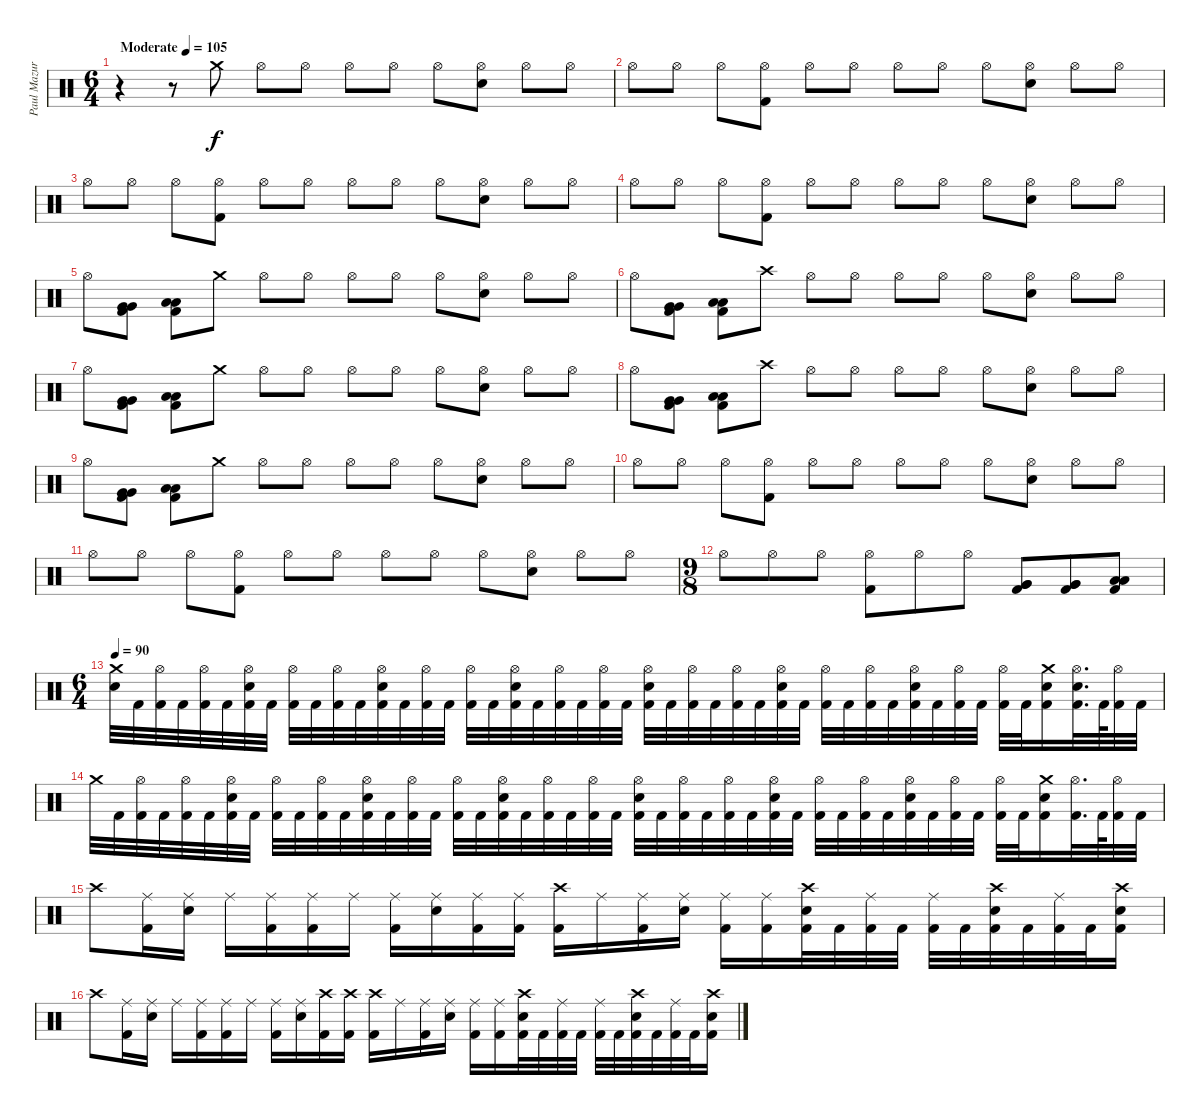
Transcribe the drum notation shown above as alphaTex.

\track ("Paul Mazurkiewicz" "Paul Mazur") {instrument percussion}
\staff {score}
\articulation defaults
\ts (6 4)
\tempo (105 "Moderate")
\clef neutral
\ks c
r.4{dy f} r.8 "Crash medium (hit)".8 "Hi-Hat (open)".8 "Hi-Hat (open)".8 "Hi-Hat (open)".8 "Hi-Hat (open)".8 "Hi-Hat (open)".8 ("Hi-Hat (open)" "Electric Snare (hit)").8 "Hi-Hat (open)".8 "Hi-Hat (open)".8 |
"Hi-Hat (open)".8 "Hi-Hat (open)".8 "Hi-Hat (open)".8 ("Hi-Hat (open)" "Kick (hit) 2").8 "Hi-Hat (open)".8 "Hi-Hat (open)".8 "Hi-Hat (open)".8 "Hi-Hat (open)".8 "Hi-Hat (open)".8 ("Hi-Hat (open)" "Electric Snare (hit)").8 "Hi-Hat (open)".8 "Hi-Hat (open)".8 |
"Hi-Hat (open)".8 "Hi-Hat (open)".8 "Hi-Hat (open)".8 ("Hi-Hat (open)" "Kick (hit) 2").8 "Hi-Hat (open)".8 "Hi-Hat (open)".8 "Hi-Hat (open)".8 "Hi-Hat (open)".8 "Hi-Hat (open)".8 ("Hi-Hat (open)" "Electric Snare (hit)").8 "Hi-Hat (open)".8 "Hi-Hat (open)".8 |
"Hi-Hat (open)".8 "Hi-Hat (open)".8 "Hi-Hat (open)".8 ("Hi-Hat (open)" "Kick (hit) 2").8 "Hi-Hat (open)".8 "Hi-Hat (open)".8 "Hi-Hat (open)".8 "Hi-Hat (open)".8 "Hi-Hat (open)".8 ("Hi-Hat (open)" "Electric Snare (hit)").8 "Hi-Hat (open)".8 "Hi-Hat (open)".8 |
"Hi-Hat (open)".8 ("Very Low Tom (hit)" "Very Low Tom (hit)" "Kick (hit) 2").8 ("Low Floor Tom (hit)" "Low Floor Tom (hit)" "Kick (hit) 2").8 "Crash medium (hit)".8 "Hi-Hat (open)".8 "Hi-Hat (open)".8 "Hi-Hat (open)".8 "Hi-Hat (open)".8 "Hi-Hat (open)".8 ("Hi-Hat (open)" "Electric Snare (hit)").8 "Hi-Hat (open)".8 "Hi-Hat (open)".8 |
"Hi-Hat (open)".8 ("Very Low Tom (hit)" "Very Low Tom (hit)" "Kick (hit) 2").8 ("Low Floor Tom (hit)" "Low Floor Tom (hit)" "Kick (hit) 2").8 "Crash high (hit)".8 "Hi-Hat (open)".8 "Hi-Hat (open)".8 "Hi-Hat (open)".8 "Hi-Hat (open)".8 "Hi-Hat (open)".8 ("Hi-Hat (open)" "Electric Snare (hit)").8 "Hi-Hat (open)".8 "Hi-Hat (open)".8 |
"Hi-Hat (open)".8 ("Very Low Tom (hit)" "Very Low Tom (hit)" "Kick (hit) 2").8 ("Low Floor Tom (hit)" "Low Floor Tom (hit)" "Kick (hit) 2").8 "Crash medium (hit)".8 "Hi-Hat (open)".8 "Hi-Hat (open)".8 "Hi-Hat (open)".8 "Hi-Hat (open)".8 "Hi-Hat (open)".8 ("Hi-Hat (open)" "Electric Snare (hit)").8 "Hi-Hat (open)".8 "Hi-Hat (open)".8 |
"Hi-Hat (open)".8 ("Very Low Tom (hit)" "Very Low Tom (hit)" "Kick (hit) 2").8 ("Low Floor Tom (hit)" "Low Floor Tom (hit)" "Kick (hit) 2").8 "Crash high (hit)".8 "Hi-Hat (open)".8 "Hi-Hat (open)".8 "Hi-Hat (open)".8 "Hi-Hat (open)".8 "Hi-Hat (open)".8 ("Hi-Hat (open)" "Electric Snare (hit)").8 "Hi-Hat (open)".8 "Hi-Hat (open)".8 |
"Hi-Hat (open)".8 ("Very Low Tom (hit)" "Very Low Tom (hit)" "Kick (hit) 2").8 ("Low Floor Tom (hit)" "Low Floor Tom (hit)" "Kick (hit) 2").8 "Crash medium (hit)".8 "Hi-Hat (open)".8 "Hi-Hat (open)".8 "Hi-Hat (open)".8 "Hi-Hat (open)".8 "Hi-Hat (open)".8 ("Hi-Hat (open)" "Electric Snare (hit)").8 "Hi-Hat (open)".8 "Hi-Hat (open)".8 |
"Hi-Hat (open)".8 "Hi-Hat (open)".8 "Hi-Hat (open)".8 ("Hi-Hat (open)" "Kick (hit) 2").8 "Hi-Hat (open)".8 "Hi-Hat (open)".8 "Hi-Hat (open)".8 "Hi-Hat (open)".8 "Hi-Hat (open)".8 ("Hi-Hat (open)" "Electric Snare (hit)").8 "Hi-Hat (open)".8 "Hi-Hat (open)".8 |
"Hi-Hat (open)".8 "Hi-Hat (open)".8 "Hi-Hat (open)".8 ("Hi-Hat (open)" "Kick (hit) 2").8 "Hi-Hat (open)".8 "Hi-Hat (open)".8 "Hi-Hat (open)".8 "Hi-Hat (open)".8 "Hi-Hat (open)".8 ("Hi-Hat (open)" "Electric Snare (hit)").8 "Hi-Hat (open)".8 "Hi-Hat (open)".8 |
\ts (9 8)
"Hi-Hat (open)".8 "Hi-Hat (open)".8 "Hi-Hat (open)".8 ("Hi-Hat (open)" "Kick (hit) 2").8 "Hi-Hat (open)".8 "Hi-Hat (open)".8 ("Very Low Tom (hit)" "Very Low Tom (hit)" "Kick (hit) 2").8 ("Very Low Tom (hit)" "Very Low Tom (hit)" "Kick (hit) 2").8 ("Low Floor Tom (hit)" "Low Floor Tom (hit)" "Kick (hit) 2").8 |
\ts (6 4)
\tempo 90
("Crash medium (hit)" "Electric Snare (hit)").32 "Kick (hit) 2".32 ("Hi-Hat (open)" "Kick (hit) 2").32 "Kick (hit) 2".32 ("Hi-Hat (open)" "Kick (hit) 2").32 "Kick (hit) 2".32 ("Hi-Hat (open)" "Electric Snare (hit)" "Kick (hit) 2").32 "Kick (hit) 2".32 ("Hi-Hat (open)" "Kick (hit) 2").32 "Kick (hit) 2".32 ("Hi-Hat (open)" "Kick (hit) 2").32 "Kick (hit) 2".32 ("Hi-Hat (open)" "Electric Snare (hit)" "Kick (hit) 2").32 "Kick (hit) 2".32 ("Hi-Hat (open)" "Kick (hit) 2").32 "Kick (hit) 2".32 ("Hi-Hat (open)" "Kick (hit) 2").32 "Kick (hit) 2".32 ("Hi-Hat (open)" "Electric Snare (hit)" "Kick (hit) 2").32 "Kick (hit) 2".32 ("Hi-Hat (open)" "Kick (hit) 2").32 "Kick (hit) 2".32 ("Hi-Hat (open)" "Kick (hit) 2").32 "Kick (hit) 2".32 ("Hi-Hat (open)" "Electric Snare (hit)" "Kick (hit) 2").32 "Kick (hit) 2".32 ("Hi-Hat (open)" "Kick (hit) 2").32 "Kick (hit) 2".32 ("Hi-Hat (open)" "Kick (hit) 2").32 "Kick (hit) 2".32 ("Hi-Hat (open)" "Electric Snare (hit)" "Kick (hit) 2").32 "Kick (hit) 2".32 ("Hi-Hat (open)" "Kick (hit) 2").32 "Kick (hit) 2".32 ("Hi-Hat (open)" "Kick (hit) 2").32 "Kick (hit) 2".32 ("Hi-Hat (open)" "Electric Snare (hit)" "Kick (hit) 2").32 "Kick (hit) 2".32 ("Hi-Hat (open)" "Kick (hit) 2").32 "Kick (hit) 2".32 ("Hi-Hat (open)" "Kick (hit) 2").32 "Kick (hit) 2".32 ("Crash medium (hit)" "Electric Snare (hit)" "Kick (hit) 2").16 ("Hi-Hat (open)" "Electric Snare (hit)" "Kick (hit) 2").32{d} "Kick (hit) 2".64 ("Hi-Hat (open)" "Kick (hit) 2").32 "Kick (hit) 2".32 |
"Crash medium (hit)".32 "Kick (hit) 2".32 ("Hi-Hat (open)" "Kick (hit) 2").32 "Kick (hit) 2".32 ("Hi-Hat (open)" "Kick (hit) 2").32 "Kick (hit) 2".32 ("Hi-Hat (open)" "Electric Snare (hit)" "Kick (hit) 2").32 "Kick (hit) 2".32 ("Hi-Hat (open)" "Kick (hit) 2").32 "Kick (hit) 2".32 ("Hi-Hat (open)" "Kick (hit) 2").32 "Kick (hit) 2".32 ("Hi-Hat (open)" "Electric Snare (hit)" "Kick (hit) 2").32 "Kick (hit) 2".32 ("Hi-Hat (open)" "Kick (hit) 2").32 "Kick (hit) 2".32 ("Hi-Hat (open)" "Kick (hit) 2").32 "Kick (hit) 2".32 ("Hi-Hat (open)" "Electric Snare (hit)" "Kick (hit) 2").32 "Kick (hit) 2".32 ("Hi-Hat (open)" "Kick (hit) 2").32 "Kick (hit) 2".32 ("Hi-Hat (open)" "Kick (hit) 2").32 "Kick (hit) 2".32 ("Hi-Hat (open)" "Electric Snare (hit)" "Kick (hit) 2").32 "Kick (hit) 2".32 ("Hi-Hat (open)" "Kick (hit) 2").32 "Kick (hit) 2".32 ("Hi-Hat (open)" "Kick (hit) 2").32 "Kick (hit) 2".32 ("Hi-Hat (open)" "Electric Snare (hit)" "Kick (hit) 2").32 "Kick (hit) 2".32 ("Hi-Hat (open)" "Kick (hit) 2").32 "Kick (hit) 2".32 ("Hi-Hat (open)" "Kick (hit) 2").32 "Kick (hit) 2".32 ("Hi-Hat (open)" "Electric Snare (hit)" "Kick (hit) 2").32 "Kick (hit) 2".32 ("Hi-Hat (open)" "Kick (hit) 2").32 "Kick (hit) 2".32 ("Hi-Hat (open)" "Kick (hit) 2").32 "Kick (hit) 2".32 ("Crash medium (hit)" "Electric Snare (hit)" "Kick (hit) 2").16 ("Hi-Hat (open)" "Kick (hit) 2").32{d} "Kick (hit) 2".64 ("Hi-Hat (open)" "Kick (hit) 2").32 "Kick (hit) 2".32 |
"Crash high (hit)".8 ("Ride (middle)" "Kick (hit) 2").16 ("Ride (middle)" "Electric Snare (hit)").16 "Ride (middle)".16 ("Ride (middle)" "Kick (hit) 2").16 ("Ride (middle)" "Kick (hit) 2").16 "Ride (middle)".16 ("Ride (middle)" "Kick (hit) 2").16 ("Ride (middle)" "Electric Snare (hit)").16 ("Ride (middle)" "Kick (hit) 2").16 ("Ride (middle)" "Kick (hit) 2").16 ("Crash high (hit)" "Kick (hit) 2").16 "Ride (middle)".16 ("Ride (middle)" "Kick (hit) 2").16 ("Ride (middle)" "Electric Snare (hit)").16 ("Ride (middle)" "Kick (hit) 2").16 ("Ride (middle)" "Kick (hit) 2").16 ("Crash high (hit)" "Electric Snare (hit)" "Kick (hit) 2").32 "Kick (hit) 2".32 ("Ride (middle)" "Kick (hit) 2").32 "Kick (hit) 2".32 ("Ride (middle)" "Kick (hit) 2").32 "Kick (hit) 2".32 ("Crash high (hit)" "Electric Snare (hit)" "Kick (hit) 2").32 "Kick (hit) 2".32 ("Ride (middle)" "Kick (hit) 2").32 "Kick (hit) 2".32 ("Crash high (hit)" "Electric Snare (hit)" "Kick (hit) 2").16 |
"Crash high (hit)".8 ("Ride (middle)" "Kick (hit) 2").16 ("Ride (middle)" "Electric Snare (hit)").16 "Ride (middle)".16 ("Ride (middle)" "Kick (hit) 2").16 ("Ride (middle)" "Kick (hit) 2").16 "Ride (middle)".16 ("Ride (middle)" "Kick (hit) 2").16 ("Ride (middle)" "Electric Snare (hit)").16 ("Crash high (hit)" "Kick (hit) 2").16 ("Crash high (hit)" "Kick (hit) 2").16 ("Crash high (hit)" "Kick (hit) 2").16 "Ride (middle)".16 ("Ride (middle)" "Kick (hit) 2").16 ("Ride (middle)" "Electric Snare (hit)").16 ("Ride (middle)" "Kick (hit) 2").16 ("Ride (middle)" "Kick (hit) 2").16 ("Crash high (hit)" "Electric Snare (hit)" "Kick (hit) 2").32 "Kick (hit) 2".32 ("Ride (middle)" "Kick (hit) 2").32 "Kick (hit) 2".32 ("Ride (middle)" "Kick (hit) 2").32 "Kick (hit) 2".32 ("Crash high (hit)" "Electric Snare (hit)" "Kick (hit) 2").32 "Kick (hit) 2".32 ("Ride (middle)" "Kick (hit) 2").32 "Kick (hit) 2".32 ("Crash high (hit)" "Electric Snare (hit)" "Kick (hit) 2").16
